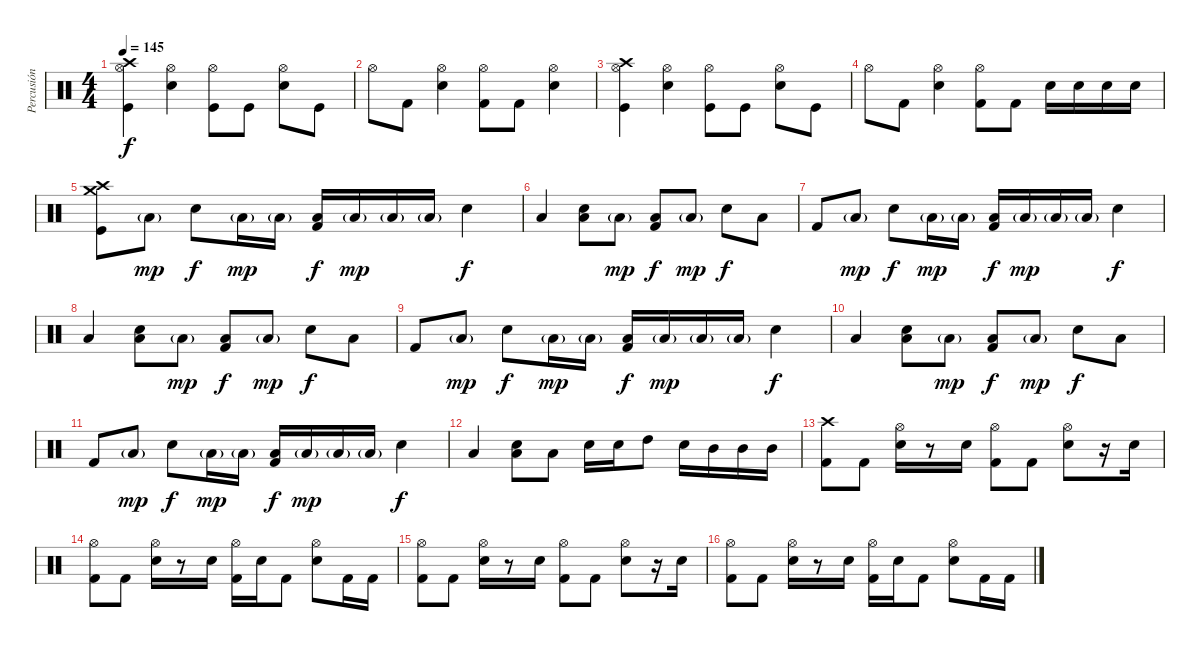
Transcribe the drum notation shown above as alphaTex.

\track ("Percusión" "Percusión") {instrument percussion}
\staff {score}
\articulation defaults
\ts (4 4)
\tempo 145
\clef neutral
\ks c
("Hi-Hat (open)" "Crash high (hit)" "Kick (hit)").4{dy f} ("Hi-Hat (open)" "Electric Snare (hit)").4 ("Hi-Hat (open)" "Kick (hit)").8 "Kick (hit)".8 ("Hi-Hat (open)" "Electric Snare (hit)").8 "Kick (hit)".8 |
"Hi-Hat (open)".8 "Kick (hit) 2".8 ("Hi-Hat (open)" "Electric Snare (hit)").4 ("Hi-Hat (open)" "Kick (hit) 2").8 "Kick (hit) 2".8 ("Hi-Hat (open)" "Electric Snare (hit)").4 |
("Hi-Hat (open)" "Crash high (hit)" "Kick (hit)").4 ("Hi-Hat (open)" "Electric Snare (hit)").4 ("Hi-Hat (open)" "Kick (hit)").8 "Kick (hit)".8 ("Hi-Hat (open)" "Electric Snare (hit)").8 "Kick (hit)".8 |
"Hi-Hat (open)".8 "Kick (hit) 2".8 ("Hi-Hat (open)" "Electric Snare (hit)").4 ("Hi-Hat (open)" "Kick (hit) 2").8 "Kick (hit) 2".8 "Electric Snare (hit)".16 "Electric Snare (hit)".16 "Electric Snare (hit)".16 "Electric Snare (hit)".16 |
("Kick (hit)" "Crash high (hit)" "Crash medium (hit)").8 "Low Floor Tom (hit)"{g}.8{dy mp} "Electric Snare (hit)".8{dy f} "Low Floor Tom (hit)"{g}.16{dy mp} "Low Floor Tom (hit)"{g}.16 ("Low Floor Tom (hit)" "Kick (hit) 2").16{dy f} "Low Floor Tom (hit)"{g}.16{dy mp} "Low Floor Tom (hit)"{g}.16 "Low Floor Tom (hit)"{g}.16 "Electric Snare (hit)".4{dy f} |
"Low Floor Tom (hit)".4 ("Electric Snare (hit)" "Low Floor Tom (hit)").8 "Low Floor Tom (hit)"{g}.8{dy mp} ("Low Floor Tom (hit)" "Kick (hit) 2").8{dy f} "Low Floor Tom (hit)"{g}.8{dy mp} "Electric Snare (hit)".8{dy f} "Low Floor Tom (hit)".8 |
"Kick (hit) 2".8 "Low Floor Tom (hit)"{g}.8{dy mp} "Electric Snare (hit)".8{dy f} "Low Floor Tom (hit)"{g}.16{dy mp} "Low Floor Tom (hit)"{g}.16 ("Low Floor Tom (hit)" "Kick (hit) 2").16{dy f} "Low Floor Tom (hit)"{g}.16{dy mp} "Low Floor Tom (hit)"{g}.16 "Low Floor Tom (hit)"{g}.16 "Electric Snare (hit)".4{dy f} |
"Low Floor Tom (hit)".4 ("Electric Snare (hit)" "Low Floor Tom (hit)").8 "Low Floor Tom (hit)"{g}.8{dy mp} ("Low Floor Tom (hit)" "Kick (hit) 2").8{dy f} "Low Floor Tom (hit)"{g}.8{dy mp} "Electric Snare (hit)".8{dy f} "Low Floor Tom (hit)".8 |
"Kick (hit) 2".8 "Low Floor Tom (hit)"{g}.8{dy mp} "Electric Snare (hit)".8{dy f} "Low Floor Tom (hit)"{g}.16{dy mp} "Low Floor Tom (hit)"{g}.16 ("Low Floor Tom (hit)" "Kick (hit) 2").16{dy f} "Low Floor Tom (hit)"{g}.16{dy mp} "Low Floor Tom (hit)"{g}.16 "Low Floor Tom (hit)"{g}.16 "Electric Snare (hit)".4{dy f} |
"Low Floor Tom (hit)".4 ("Electric Snare (hit)" "Low Floor Tom (hit)").8 "Low Floor Tom (hit)"{g}.8{dy mp} ("Low Floor Tom (hit)" "Kick (hit) 2").8{dy f} "Low Floor Tom (hit)"{g}.8{dy mp} "Electric Snare (hit)".8{dy f} "Low Floor Tom (hit)".8 |
"Kick (hit) 2".8 "Low Floor Tom (hit)"{g}.8{dy mp} "Electric Snare (hit)".8{dy f} "Low Floor Tom (hit)"{g}.16{dy mp} "Low Floor Tom (hit)"{g}.16 ("Low Floor Tom (hit)" "Kick (hit) 2").16{dy f} "Low Floor Tom (hit)"{g}.16{dy mp} "Low Floor Tom (hit)"{g}.16 "Low Floor Tom (hit)"{g}.16 "Electric Snare (hit)".4{dy f} |
"Low Floor Tom (hit)".4 ("Electric Snare (hit)" "Low Floor Tom (hit)").8 "Low Floor Tom (hit)".8 "Electric Snare (hit)".16 "Electric Snare (hit)".16 "High Tom (hit)".8 "Electric Snare (hit)".16 "Mid Tom (hit)".16 "Mid Tom (hit)".16 "Mid Tom (hit)".16 |
("Crash high (hit)" "Kick (hit) 2").8 "Kick (hit) 2".8 ("Hi-Hat (open)" "Electric Snare (hit)").16 r.8 "Electric Snare (hit)".16 ("Hi-Hat (open)" "Kick (hit) 2").8 "Kick (hit) 2".8 ("Hi-Hat (open)" "Electric Snare (hit)").8 r.16 "Electric Snare (hit)".16 |
("Hi-Hat (open)" "Kick (hit) 2").8 "Kick (hit) 2".8 ("Hi-Hat (open)" "Electric Snare (hit)").16 r.8 "Electric Snare (hit)".16 ("Hi-Hat (open)" "Kick (hit) 2").16 "Electric Snare (hit)".16 "Kick (hit) 2".8 ("Hi-Hat (open)" "Electric Snare (hit)").8 "Kick (hit) 2".16 "Kick (hit) 2".16 |
("Hi-Hat (open)" "Kick (hit) 2").8 "Kick (hit) 2".8 ("Hi-Hat (open)" "Electric Snare (hit)").16 r.8 "Electric Snare (hit)".16 ("Hi-Hat (open)" "Kick (hit) 2").8 "Kick (hit) 2".8 ("Hi-Hat (open)" "Electric Snare (hit)").8 r.16 "Electric Snare (hit)".16 |
("Hi-Hat (open)" "Kick (hit) 2").8 "Kick (hit) 2".8 ("Hi-Hat (open)" "Electric Snare (hit)").16 r.8 "Electric Snare (hit)".16 ("Hi-Hat (open)" "Kick (hit) 2").16 "Electric Snare (hit)".16 "Kick (hit) 2".8 ("Hi-Hat (open)" "Electric Snare (hit)").8 "Kick (hit) 2".16 "Kick (hit) 2".16
